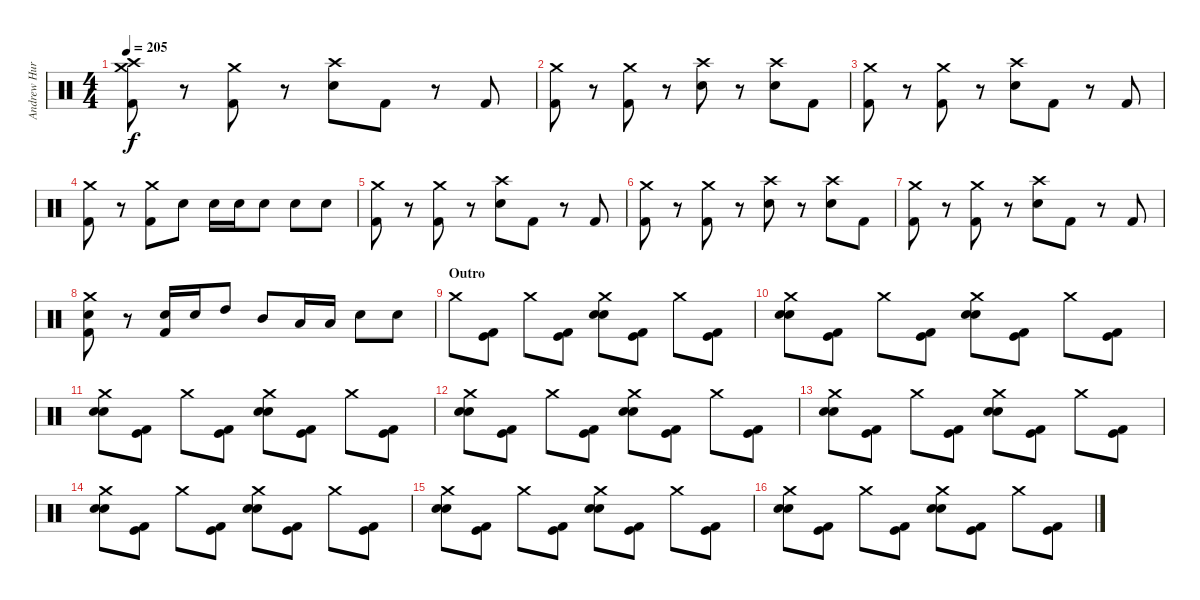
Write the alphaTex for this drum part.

\track ("Andrew Hurley (Drums)" "Andrew Hur") {instrument percussion}
\staff {score}
\articulation defaults
\ts (4 4)
\tempo 205
\clef neutral
\ks c
("Crash high (hit)" "Crash medium (hit)" "Kick (hit) 2").8{dy f} r.8 ("Crash medium (hit)" "Kick (hit) 2").8 r.8 ("Crash high (hit)" "Electric Snare (hit)").8 "Kick (hit) 2".8 r.8 "Kick (hit) 2".8 |
("Crash medium (hit)" "Kick (hit) 2").8 r.8 ("Crash medium (hit)" "Kick (hit) 2").8 r.8 ("Crash high (hit)" "Electric Snare (hit)").8 r.8 ("Crash high (hit)" "Electric Snare (hit)").8 "Kick (hit) 2".8 |
("Crash medium (hit)" "Kick (hit) 2").8 r.8 ("Crash medium (hit)" "Kick (hit) 2").8 r.8 ("Crash high (hit)" "Electric Snare (hit)").8 "Kick (hit) 2".8 r.8 "Kick (hit) 2".8 |
("Crash medium (hit)" "Kick (hit) 2").8 r.8 ("Crash medium (hit)" "Kick (hit) 2").8 "Electric Snare (hit)".8 "Electric Snare (hit)".16 "Electric Snare (hit)".16 "Electric Snare (hit)".8 "Electric Snare (hit)".8 "Electric Snare (hit)".8 |
("Crash medium (hit)" "Kick (hit) 2").8 r.8 ("Crash medium (hit)" "Kick (hit) 2").8 r.8 ("Crash high (hit)" "Electric Snare (hit)").8 "Kick (hit) 2".8 r.8 "Kick (hit) 2".8 |
("Crash medium (hit)" "Kick (hit) 2").8 r.8 ("Crash medium (hit)" "Kick (hit) 2").8 r.8 ("Crash high (hit)" "Electric Snare (hit)").8 r.8 ("Crash high (hit)" "Electric Snare (hit)").8 "Kick (hit) 2".8 |
("Crash medium (hit)" "Kick (hit) 2").8 r.8 ("Crash medium (hit)" "Kick (hit) 2").8 r.8 ("Crash high (hit)" "Electric Snare (hit)").8 "Kick (hit) 2".8 r.8 "Kick (hit) 2".8 |
("Crash medium (hit)" "Electric Snare (hit)" "Kick (hit) 2").8 r.8 ("Electric Snare (hit)" "Kick (hit) 2").16 "Electric Snare (hit)".16 "High Tom (hit)".8 "Mid Tom (hit)".8 "Low Tom (hit)".16 "Low Tom (hit)".16 "Electric Snare (hit)".8 "Electric Snare (hit)".8 |
\section ("" "Outro")
"Crash medium (hit)".8 ("Kick (hit)" "Kick (hit) 2").8 "Crash medium (hit)".8 ("Kick (hit)" "Kick (hit) 2").8 ("Crash medium (hit)" "Snare (hit) 2" "Electric Snare (hit)").8 ("Kick (hit)" "Kick (hit) 2").8 "Crash medium (hit)".8 ("Kick (hit)" "Kick (hit) 2").8 |
("Crash medium (hit)" "Snare (hit) 2" "Electric Snare (hit)").8 ("Kick (hit)" "Kick (hit) 2").8 "Crash medium (hit)".8 ("Kick (hit)" "Kick (hit) 2").8 ("Crash medium (hit)" "Snare (hit) 2" "Electric Snare (hit)").8 ("Kick (hit)" "Kick (hit) 2").8 "Crash medium (hit)".8 ("Kick (hit)" "Kick (hit) 2").8 |
("Crash medium (hit)" "Snare (hit) 2" "Electric Snare (hit)").8 ("Kick (hit)" "Kick (hit) 2").8 "Crash medium (hit)".8 ("Kick (hit)" "Kick (hit) 2").8 ("Crash medium (hit)" "Snare (hit) 2" "Electric Snare (hit)").8 ("Kick (hit)" "Kick (hit) 2").8 "Crash medium (hit)".8 ("Kick (hit)" "Kick (hit) 2").8 |
("Crash medium (hit)" "Snare (hit) 2" "Electric Snare (hit)").8 ("Kick (hit)" "Kick (hit) 2").8 "Crash medium (hit)".8 ("Kick (hit)" "Kick (hit) 2").8 ("Crash medium (hit)" "Snare (hit) 2" "Electric Snare (hit)").8 ("Kick (hit)" "Kick (hit) 2").8 "Crash medium (hit)".8 ("Kick (hit)" "Kick (hit) 2").8 |
("Crash medium (hit)" "Snare (hit) 2" "Electric Snare (hit)").8 ("Kick (hit)" "Kick (hit) 2").8 "Crash medium (hit)".8 ("Kick (hit)" "Kick (hit) 2").8 ("Crash medium (hit)" "Snare (hit) 2" "Electric Snare (hit)").8 ("Kick (hit)" "Kick (hit) 2").8 "Crash medium (hit)".8 ("Kick (hit)" "Kick (hit) 2").8 |
("Crash medium (hit)" "Snare (hit) 2" "Electric Snare (hit)").8 ("Kick (hit)" "Kick (hit) 2").8 "Crash medium (hit)".8 ("Kick (hit)" "Kick (hit) 2").8 ("Crash medium (hit)" "Snare (hit) 2" "Electric Snare (hit)").8 ("Kick (hit)" "Kick (hit) 2").8 "Crash medium (hit)".8 ("Kick (hit)" "Kick (hit) 2").8 |
("Crash medium (hit)" "Snare (hit) 2" "Electric Snare (hit)").8 ("Kick (hit)" "Kick (hit) 2").8 "Crash medium (hit)".8 ("Kick (hit)" "Kick (hit) 2").8 ("Crash medium (hit)" "Snare (hit) 2" "Electric Snare (hit)").8 ("Kick (hit)" "Kick (hit) 2").8 "Crash medium (hit)".8 ("Kick (hit)" "Kick (hit) 2").8 |
("Crash medium (hit)" "Snare (hit) 2" "Electric Snare (hit)").8 ("Kick (hit)" "Kick (hit) 2").8 "Crash medium (hit)".8 ("Kick (hit)" "Kick (hit) 2").8 ("Crash medium (hit)" "Snare (hit) 2" "Electric Snare (hit)").8 ("Kick (hit)" "Kick (hit) 2").8 "Crash medium (hit)".8 ("Kick (hit)" "Kick (hit) 2").8
